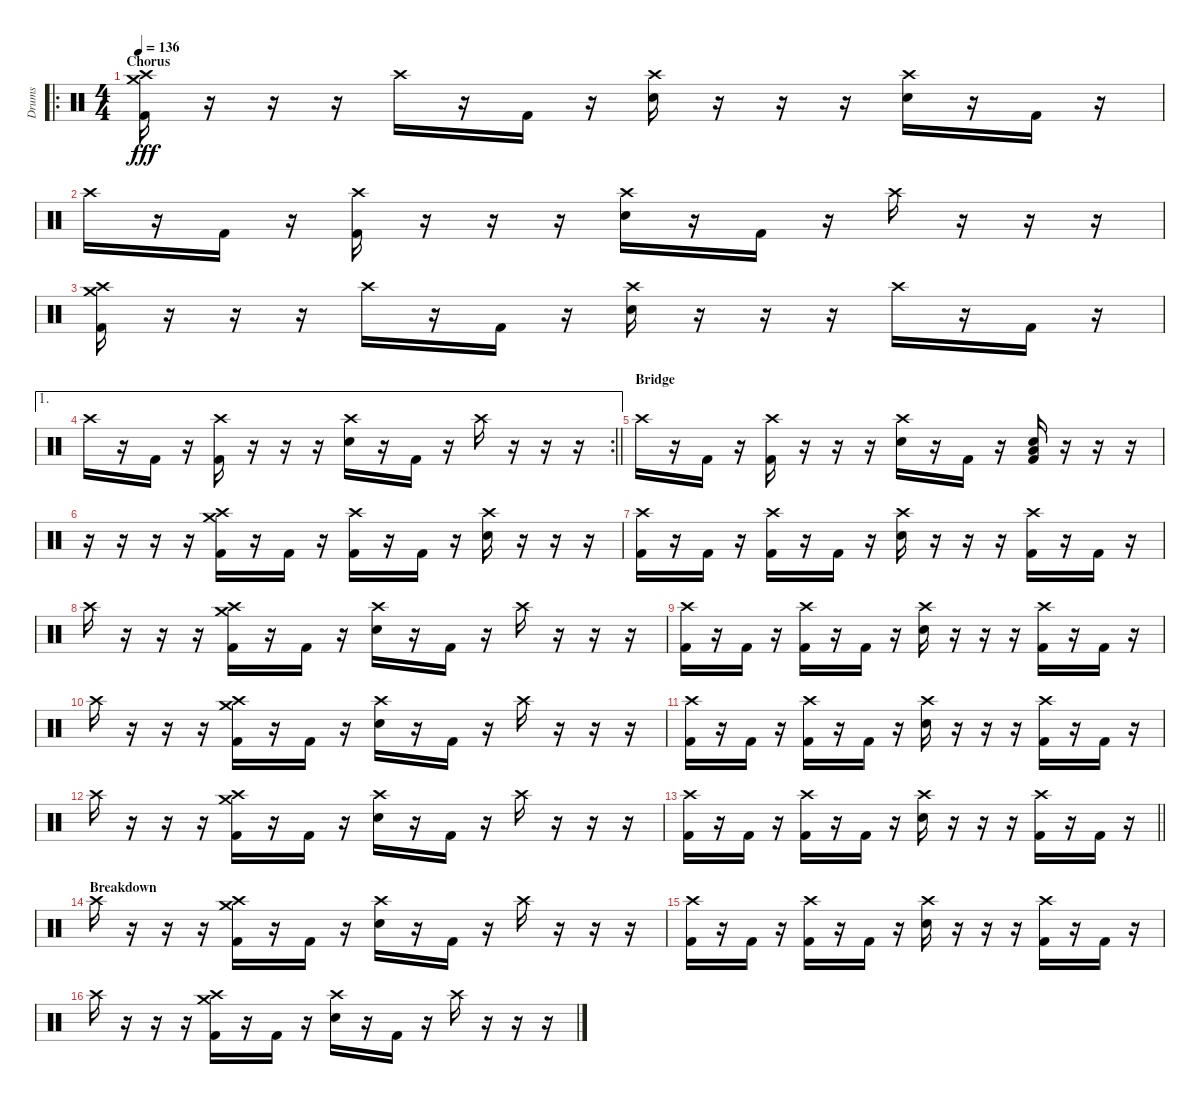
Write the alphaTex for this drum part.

\track ("Drums" "Drums") {instrument percussion}
\staff {score}
\articulation defaults
\ro
\ts (4 4)
\section ("" "Chorus")
\tempo 136
\clef neutral
\ks c
("Crash medium (hit)" "Crash high (hit)" "Kick (hit) 2").16{dy fff} r.16 r.16 r.16 "Crash high (hit)".16 r.16 "Kick (hit) 2".16 r.16 ("Crash high (hit)" "Electric Snare (hit)").16 r.16 r.16 r.16 ("Crash high (hit)" "Electric Snare (hit)").16 r.16 "Kick (hit) 2".16 r.16 |
"Crash high (hit)".16 r.16 "Kick (hit) 2".16 r.16 ("Crash high (hit)" "Kick (hit) 2").16 r.16 r.16 r.16 ("Crash high (hit)" "Electric Snare (hit)").16 r.16 "Kick (hit) 2".16 r.16 "Crash high (hit)".16 r.16 r.16 r.16 |
("Crash medium (hit)" "Crash high (hit)" "Kick (hit) 2").16 r.16 r.16 r.16 "Crash high (hit)".16 r.16 "Kick (hit) 2".16 r.16 ("Crash high (hit)" "Electric Snare (hit)").16 r.16 r.16 r.16 "Crash high (hit)".16 r.16 "Kick (hit) 2".16 r.16 |
\ae 1
\rc 2
\barLineRight lightlight "Crash high (hit)".16
r.16 "Kick (hit) 2".16 r.16 ("Crash high (hit)" "Kick (hit) 2").16 r.16 r.16 r.16 ("Crash high (hit)" "Electric Snare (hit)").16 r.16 "Kick (hit) 2".16 r.16 "Crash high (hit)".16 r.16 r.16 r.16 |
\section ("" "Bridge")
"Crash high (hit)".16 r.16 "Kick (hit) 2".16 r.16 ("Crash high (hit)" "Kick (hit) 2").16 r.16 r.16 r.16 ("Crash high (hit)" "Electric Snare (hit)").16 r.16 "Kick (hit) 2".16 r.16 ("Low Floor Tom (hit)" "Electric Snare (hit)" "Kick (hit) 2").16 r.16 r.16 r.16 |
r.16 r.16 r.16 r.16 ("Crash medium (hit)" "Crash high (hit)" "Kick (hit) 2").16 r.16 "Kick (hit) 2".16 r.16 ("Crash high (hit)" "Kick (hit) 2").16 r.16 "Kick (hit) 2".16 r.16 ("Crash high (hit)" "Electric Snare (hit)").16 r.16 r.16 r.16 |
("Crash high (hit)" "Kick (hit) 2").16 r.16 "Kick (hit) 2".16 r.16 ("Crash high (hit)" "Kick (hit) 2").16 r.16 "Kick (hit) 2".16 r.16 ("Crash high (hit)" "Electric Snare (hit)").16 r.16 r.16 r.16 ("Crash high (hit)" "Kick (hit) 2").16 r.16 "Kick (hit) 2".16 r.16 |
"Crash high (hit)".16 r.16 r.16 r.16 ("Crash medium (hit)" "Crash high (hit)" "Kick (hit) 2").16 r.16 "Kick (hit) 2".16 r.16 ("Crash high (hit)" "Electric Snare (hit)").16 r.16 "Kick (hit) 2".16 r.16 "Crash high (hit)".16 r.16 r.16 r.16 |
("Crash high (hit)" "Kick (hit) 2").16 r.16 "Kick (hit) 2".16 r.16 ("Crash high (hit)" "Kick (hit) 2").16 r.16 "Kick (hit) 2".16 r.16 ("Crash high (hit)" "Electric Snare (hit)").16 r.16 r.16 r.16 ("Crash high (hit)" "Kick (hit) 2").16 r.16 "Kick (hit) 2".16 r.16 |
"Crash high (hit)".16 r.16 r.16 r.16 ("Crash medium (hit)" "Crash high (hit)" "Kick (hit) 2").16 r.16 "Kick (hit) 2".16 r.16 ("Crash high (hit)" "Electric Snare (hit)").16 r.16 "Kick (hit) 2".16 r.16 "Crash high (hit)".16 r.16 r.16 r.16 |
("Crash high (hit)" "Kick (hit) 2").16 r.16 "Kick (hit) 2".16 r.16 ("Crash high (hit)" "Kick (hit) 2").16 r.16 "Kick (hit) 2".16 r.16 ("Crash high (hit)" "Electric Snare (hit)").16 r.16 r.16 r.16 ("Crash high (hit)" "Kick (hit) 2").16 r.16 "Kick (hit) 2".16 r.16 |
"Crash high (hit)".16 r.16 r.16 r.16 ("Crash medium (hit)" "Crash high (hit)" "Kick (hit) 2").16 r.16 "Kick (hit) 2".16 r.16 ("Crash high (hit)" "Electric Snare (hit)").16 r.16 "Kick (hit) 2".16 r.16 "Crash high (hit)".16 r.16 r.16 r.16 |
\barLineRight lightlight
("Crash high (hit)" "Kick (hit) 2").16 r.16 "Kick (hit) 2".16 r.16 ("Crash high (hit)" "Kick (hit) 2").16 r.16 "Kick (hit) 2".16 r.16 ("Crash high (hit)" "Electric Snare (hit)").16 r.16 r.16 r.16 ("Crash high (hit)" "Kick (hit) 2").16 r.16 "Kick (hit) 2".16 r.16 |
\section ("" "Breakdown")
"Crash high (hit)".16 r.16 r.16 r.16 ("Crash medium (hit)" "Crash high (hit)" "Kick (hit) 2").16 r.16 "Kick (hit) 2".16 r.16 ("Crash high (hit)" "Electric Snare (hit)").16 r.16 "Kick (hit) 2".16 r.16 "Crash high (hit)".16 r.16 r.16 r.16 |
("Crash high (hit)" "Kick (hit) 2").16 r.16 "Kick (hit) 2".16 r.16 ("Crash high (hit)" "Kick (hit) 2").16 r.16 "Kick (hit) 2".16 r.16 ("Crash high (hit)" "Electric Snare (hit)").16 r.16 r.16 r.16 ("Crash high (hit)" "Kick (hit) 2").16 r.16 "Kick (hit) 2".16 r.16 |
"Crash high (hit)".16 r.16 r.16 r.16 ("Crash medium (hit)" "Crash high (hit)" "Kick (hit) 2").16 r.16 "Kick (hit) 2".16 r.16 ("Crash high (hit)" "Electric Snare (hit)").16 r.16 "Kick (hit) 2".16 r.16 "Crash high (hit)".16 r.16 r.16 r.16
